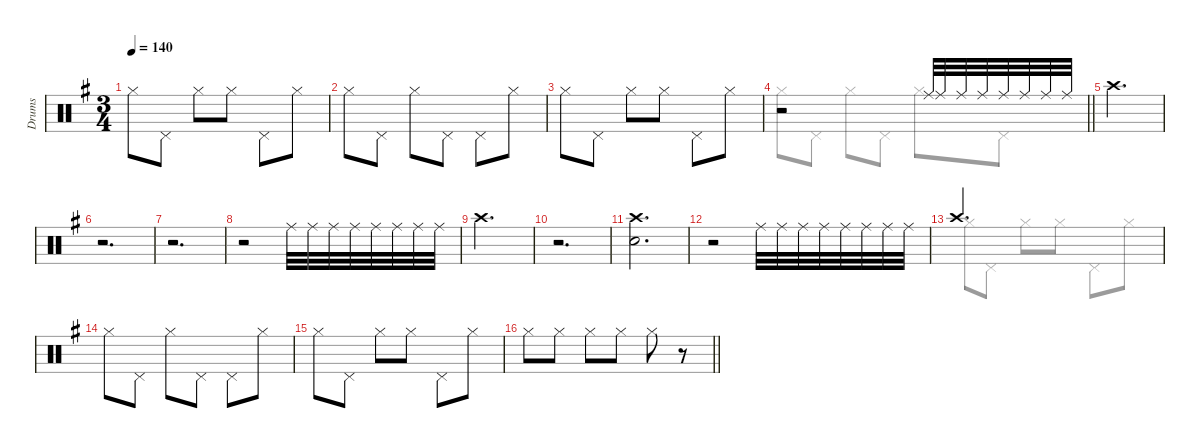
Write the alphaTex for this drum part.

\defaultSystemsLayout 8
\hideDynamics
\bracketExtendMode groupsimilarinstruments
\firstSystemTrackNameMode fullname
\otherSystemsTrackNameOrientation horizontal
\track ("Drums" "drm.") {defaultSystemsLayout 4 instrument percussion}
\staff {score}
\articulation defaults
\voice
\ts (3 4)
\tempo 140
\clef neutral
\ks g "Hi-Hat (closed)"{acc forcenatural}.8{dy f beam Down} "Pedal Hi-Hat (hit)"{acc forcenatural}.8{beam Down} "Hi-Hat (closed)"{acc forcenatural}.8{beam Down} "Hi-Hat (closed)"{acc forcenatural}.8{beam Down} "Pedal Hi-Hat (hit)"{acc forcenatural}.8{beam Down} "Hi-Hat (closed)"{acc forcenatural}.8{beam Down}
|
"Hi-Hat (closed)"{acc forcenatural}.8{beam Down} "Pedal Hi-Hat (hit)"{acc forcenatural}.8{beam Down} "Hi-Hat (closed)"{acc forcenatural}.8{beam Down} "Pedal Hi-Hat (hit)"{acc forcenatural}.8{beam Down} "Pedal Hi-Hat (hit)"{acc forcenatural}.8{beam Down} "Hi-Hat (closed)"{acc forcenatural}.8{beam Down} |
"Hi-Hat (closed)"{acc forcenatural}.8{beam Down} "Pedal Hi-Hat (hit)"{acc forcenatural}.8{beam Down} "Hi-Hat (closed)"{acc forcenatural}.8{beam Down} "Hi-Hat (closed)"{acc forcenatural}.8{beam Down} "Pedal Hi-Hat (hit)"{acc forcenatural}.8{beam Down} "Hi-Hat (closed)"{acc forcenatural}.8{beam Down} |
\barLineRight lightlight
r.2{beam Up} "Ride (middle)"{acc forcenatural}.32{dy p beam Up} "Ride (middle)"{acc forcenatural}.32{beam Up} "Ride (middle)"{acc forcenatural}.32{dy mp beam Up} "Ride (middle)"{acc forcenatural}.32{beam Up} "Ride (middle)"{acc forcenatural}.32{dy mf beam Up} "Ride (middle)"{acc forcenatural}.32{beam Up} "Ride (middle)"{acc forcenatural}.32{dy f beam Up} "Ride (middle)"{acc forcenatural}.32{beam Up} |
"Crash high (hit)"{acc forcenatural}.2{d dy ff beam Down} |
r.2{d beam Down} |
r.2{d beam Down} |
r.2{beam Down} "Ride (middle)"{acc forcenatural}.32{dy p beam Down} "Ride (middle)"{acc forcenatural}.32{beam Down} "Ride (middle)"{acc forcenatural}.32{dy mp beam Down} "Ride (middle)"{acc forcenatural}.32{beam Down} "Ride (middle)"{acc forcenatural}.32{dy mf beam Down} "Ride (middle)"{acc forcenatural}.32{beam Down} "Ride (middle)"{acc forcenatural}.32{dy f beam Down} "Ride (middle)"{acc forcenatural}.32{beam Down} |
"Crash high (hit)"{acc forcenatural}.2{d dy ff beam Down} |
r.2{d beam Down} |
("Crash high (hit)"{acc forcenatural} "Snare (hit) 2"{acc forcenatural}).2{d beam Down} |
r.2{beam Down} "Ride (middle)"{acc forcenatural}.32{dy p beam Down} "Ride (middle)"{acc forcenatural}.32{beam Down} "Ride (middle)"{acc forcenatural}.32{dy mp beam Down} "Ride (middle)"{acc forcenatural}.32{beam Down} "Ride (middle)"{acc forcenatural}.32{dy mf beam Down} "Ride (middle)"{acc forcenatural}.32{beam Down} "Ride (middle)"{acc forcenatural}.32{dy f beam Down} "Ride (middle)"{acc forcenatural}.32{beam Down} |
"Crash high (hit)"{acc forcenatural}.2{d dy ff beam Up} |
"Hi-Hat (closed)"{acc forcenatural}.8{dy f beam Down} "Pedal Hi-Hat (hit)"{acc forcenatural}.8{beam Down} "Hi-Hat (closed)"{acc forcenatural}.8{beam Down} "Pedal Hi-Hat (hit)"{acc forcenatural}.8{beam Down} "Pedal Hi-Hat (hit)"{acc forcenatural}.8{beam Down} "Hi-Hat (closed)"{acc forcenatural}.8{beam Down} |
"Hi-Hat (closed)"{acc forcenatural}.8{beam Down} "Pedal Hi-Hat (hit)"{acc forcenatural}.8{beam Down} "Hi-Hat (closed)"{acc forcenatural}.8{beam Down} "Hi-Hat (closed)"{acc forcenatural}.8{beam Down} "Pedal Hi-Hat (hit)"{acc forcenatural}.8{beam Down} "Hi-Hat (closed)"{acc forcenatural}.8{beam Down} |
\barLineRight lightlight "Hi-Hat (closed)"{acc forcenatural}.8{dy pp beam Down} "Hi-Hat (closed)"{acc forcenatural}.8{dy p beam Down} "Hi-Hat (closed)"{acc forcenatural}.8{dy mp beam Down} "Hi-Hat (closed)"{acc forcenatural}.8{dy mf beam Down} "Hi-Hat (closed)"{acc forcenatural}.8{dy f beam Down}
r.8{beam Down}
\voice
\clef neutral
\ottava regular
\simile none
\ks g
|
|
|
\barLineRight lightlight "Hi-Hat (closed)"{acc forcenatural}.8{beam Down} "Pedal Hi-Hat (hit)"{acc forcenatural}.8{beam Down} "Hi-Hat (closed)"{acc forcenatural}.8{beam Down} "Pedal Hi-Hat (hit)"{acc forcenatural}.8{beam Down} "Hi-Hat (closed)"{acc forcenatural}.8{beam Down} "Pedal Hi-Hat (hit)"{acc forcenatural}.8{beam Down}
|
|
|
|
|
|
|
|
|
"Hi-Hat (closed)"{acc forcenatural}.8{beam Down} "Pedal Hi-Hat (hit)"{acc forcenatural}.8{beam Down} "Hi-Hat (closed)"{acc forcenatural}.8{beam Down} "Hi-Hat (closed)"{acc forcenatural}.8{beam Down} "Pedal Hi-Hat (hit)"{acc forcenatural}.8{beam Down} "Hi-Hat (closed)"{acc forcenatural}.8{beam Down} |
|
|
\barLineRight lightlight
